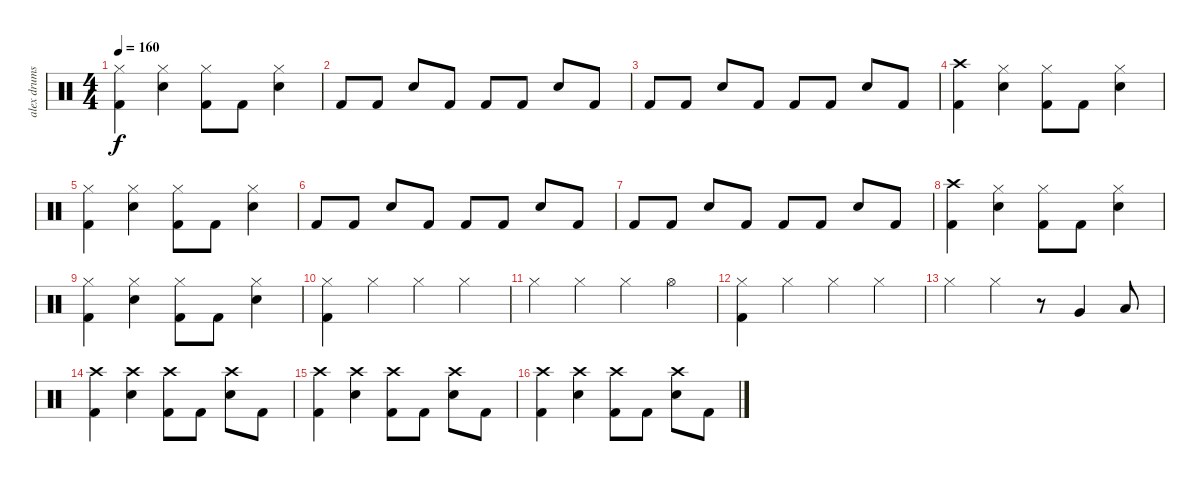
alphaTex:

\track ("alex drums" "alex drums") {instrument percussion}
\staff {score}
\articulation defaults
\ts (4 4)
\tempo 160
\clef neutral
\ks c
("Hi-Hat (closed)" "Kick (hit) 2").4{dy f} ("Hi-Hat (closed)" "Snare (hit) 2").4 ("Hi-Hat (closed)" "Kick (hit) 2").8 "Kick (hit) 2".8 ("Hi-Hat (closed)" "Snare (hit) 2").4 |
"Kick (hit) 2".8 "Kick (hit) 2".8 "Snare (hit) 2".8 "Kick (hit) 2".8 "Kick (hit) 2".8 "Kick (hit) 2".8 "Snare (hit) 2".8 "Kick (hit) 2".8 |
"Kick (hit) 2".8 "Kick (hit) 2".8 "Snare (hit) 2".8 "Kick (hit) 2".8 "Kick (hit) 2".8 "Kick (hit) 2".8 "Snare (hit) 2".8 "Kick (hit) 2".8 |
("Crash high (hit)" "Kick (hit) 2").4 ("Hi-Hat (closed)" "Snare (hit) 2").4 ("Hi-Hat (closed)" "Kick (hit) 2").8 "Kick (hit) 2".8 ("Hi-Hat (closed)" "Snare (hit) 2").4 |
("Hi-Hat (closed)" "Kick (hit) 2").4 ("Hi-Hat (closed)" "Snare (hit) 2").4 ("Hi-Hat (closed)" "Kick (hit) 2").8 "Kick (hit) 2".8 ("Hi-Hat (closed)" "Snare (hit) 2").4 |
"Kick (hit) 2".8 "Kick (hit) 2".8 "Snare (hit) 2".8 "Kick (hit) 2".8 "Kick (hit) 2".8 "Kick (hit) 2".8 "Snare (hit) 2".8 "Kick (hit) 2".8 |
"Kick (hit) 2".8 "Kick (hit) 2".8 "Snare (hit) 2".8 "Kick (hit) 2".8 "Kick (hit) 2".8 "Kick (hit) 2".8 "Snare (hit) 2".8 "Kick (hit) 2".8 |
("Crash high (hit)" "Kick (hit) 2").4 ("Hi-Hat (closed)" "Snare (hit) 2").4 ("Hi-Hat (closed)" "Kick (hit) 2").8 "Kick (hit) 2".8 ("Hi-Hat (closed)" "Snare (hit) 2").4 |
("Hi-Hat (closed)" "Kick (hit) 2").4 ("Hi-Hat (closed)" "Snare (hit) 2").4 ("Hi-Hat (closed)" "Kick (hit) 2").8 "Kick (hit) 2".8 ("Hi-Hat (closed)" "Snare (hit) 2").4 |
("Hi-Hat (closed)" "Kick (hit) 2").4 "Hi-Hat (closed)".4 "Hi-Hat (closed)".4 "Hi-Hat (closed)".4 |
"Hi-Hat (closed)".4 "Hi-Hat (closed)".4 "Hi-Hat (closed)".4 "Hi-Hat (open)".4 |
("Hi-Hat (closed)" "Kick (hit) 2").4 "Hi-Hat (closed)".4 "Hi-Hat (closed)".4 "Hi-Hat (closed)".4 |
"Hi-Hat (closed)".4 "Hi-Hat (closed)".4 r.8 "Very Low Tom (hit)".4 "Low Floor Tom (hit)".8 |
("Crash high (hit)" "Kick (hit) 2").4 ("Crash high (hit)" "Snare (hit) 2").4 ("Crash high (hit)" "Kick (hit) 2").8 "Kick (hit) 2".8 ("Crash high (hit)" "Snare (hit) 2").8 "Kick (hit) 2".8 |
("Crash high (hit)" "Kick (hit) 2").4 ("Crash high (hit)" "Snare (hit) 2").4 ("Crash high (hit)" "Kick (hit) 2").8 "Kick (hit) 2".8 ("Crash high (hit)" "Snare (hit) 2").8 "Kick (hit) 2".8 |
("Crash high (hit)" "Kick (hit) 2").4 ("Crash high (hit)" "Snare (hit) 2").4 ("Crash high (hit)" "Kick (hit) 2").8 "Kick (hit) 2".8 ("Crash high (hit)" "Snare (hit) 2").8 "Kick (hit) 2".8
